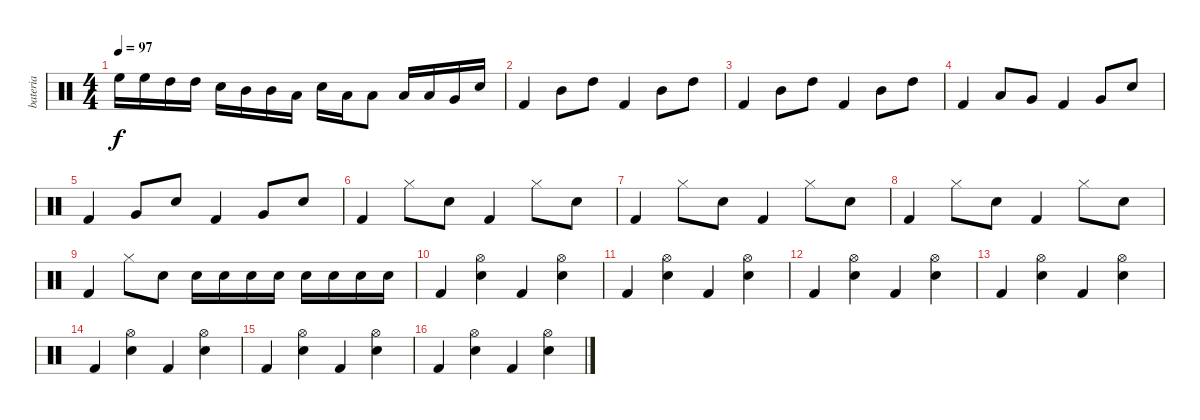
\track ("bateria" "bateria") {instrument percussion}
\staff {score}
\articulation defaults
\ts (4 4)
\tempo 97
\clef neutral
\ks c "High Floor Tom (hit)".16{dy f} "High Floor Tom (hit)".16 "High Tom (hit)".16 "High Tom (hit)".16 "Electric Snare (hit)".16 "Mid Tom (hit)".16 "Mid Tom (hit)".16 "Low Tom (hit)".16 "Electric Snare (hit)".16 "Low Tom (hit)".16 "Low Floor Tom (hit)".8 "Low Floor Tom (hit)".16 "Low Floor Tom (hit)".16 "Very Low Tom (hit)".16 "Electric Snare (hit)".16
|
"Kick (hit) 2".4 "Mid Tom (hit)".8 "High Tom (hit)".8 "Kick (hit) 2".4 "Mid Tom (hit)".8 "High Tom (hit)".8 |
"Kick (hit) 2".4 "Mid Tom (hit)".8 "High Tom (hit)".8 "Kick (hit) 2".4 "Mid Tom (hit)".8 "High Tom (hit)".8 |
"Kick (hit) 2".4 "Low Floor Tom (hit)".8 "Very Low Tom (hit)".8 "Kick (hit) 2".4 "Very Low Tom (hit)".8 "Electric Snare (hit)".8 |
"Kick (hit) 2".4 "Very Low Tom (hit)".8 "Electric Snare (hit)".8 "Kick (hit) 2".4 "Very Low Tom (hit)".8 "Electric Snare (hit)".8 |
"Kick (hit) 2".4 "Hi-Hat (closed)".8 "Electric Snare (hit)".8 "Kick (hit) 2".4 "Hi-Hat (closed)".8 "Electric Snare (hit)".8 |
"Kick (hit) 2".4 "Hi-Hat (closed)".8 "Electric Snare (hit)".8 "Kick (hit) 2".4 "Hi-Hat (closed)".8 "Electric Snare (hit)".8 |
"Kick (hit) 2".4 "Hi-Hat (closed)".8 "Electric Snare (hit)".8 "Kick (hit) 2".4 "Hi-Hat (closed)".8 "Electric Snare (hit)".8 |
"Kick (hit) 2".4 "Hi-Hat (closed)".8 "Electric Snare (hit)".8 "Snare (hit) 2".16 "Snare (hit) 2".16 "Snare (hit) 2".16 "Snare (hit) 2".16 "Electric Snare (hit)".16 "Electric Snare (hit)".16 "Electric Snare (hit)".16 "Electric Snare (hit)".16 |
"Kick (hit) 2".4 ("Hi-Hat (open)" "Electric Snare (hit)").4 "Kick (hit) 2".4 ("Hi-Hat (open)" "Electric Snare (hit)").4 |
"Kick (hit) 2".4 ("Hi-Hat (open)" "Electric Snare (hit)").4 "Kick (hit) 2".4 ("Hi-Hat (open)" "Electric Snare (hit)").4 |
"Kick (hit) 2".4 ("Hi-Hat (open)" "Electric Snare (hit)").4 "Kick (hit) 2".4 ("Hi-Hat (open)" "Electric Snare (hit)").4 |
"Kick (hit) 2".4 ("Hi-Hat (open)" "Electric Snare (hit)").4 "Kick (hit) 2".4 ("Hi-Hat (open)" "Electric Snare (hit)").4 |
"Kick (hit) 2".4 ("Hi-Hat (open)" "Electric Snare (hit)").4 "Kick (hit) 2".4 ("Hi-Hat (open)" "Electric Snare (hit)").4 |
"Kick (hit) 2".4 ("Hi-Hat (open)" "Electric Snare (hit)").4 "Kick (hit) 2".4 ("Hi-Hat (open)" "Electric Snare (hit)").4 |
"Kick (hit) 2".4 ("Hi-Hat (open)" "Electric Snare (hit)").4 "Kick (hit) 2".4 ("Hi-Hat (open)" "Electric Snare (hit)").4
